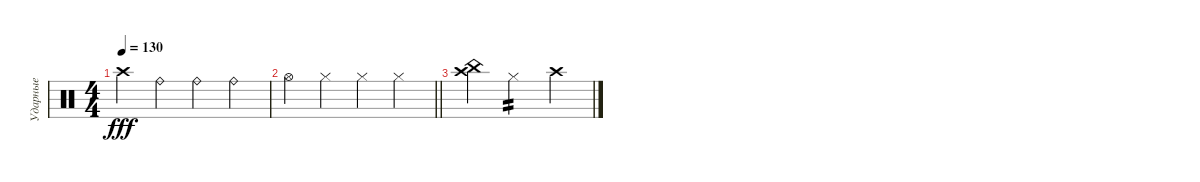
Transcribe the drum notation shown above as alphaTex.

\track ("Ударные" "Ударные") {instrument percussion}
\staff {score}
\articulation defaults
\ts (4 4)
\tempo 130
\clef neutral
\ks c "Crash high (hit)".4{dy fff} "Ride (bell)".4 "Ride (bell)".4 "Ride (bell)".4
|
\barLineRight lightlight "Hi-Hat (open)".4 "Hi-Hat (closed)".4 "Hi-Hat (closed)".4 "Hi-Hat (closed)".4
|
("Crash high (hit)" "China (hit)").4 "Hi-Hat (closed)".2{tp 2} "Crash high (hit)".4
